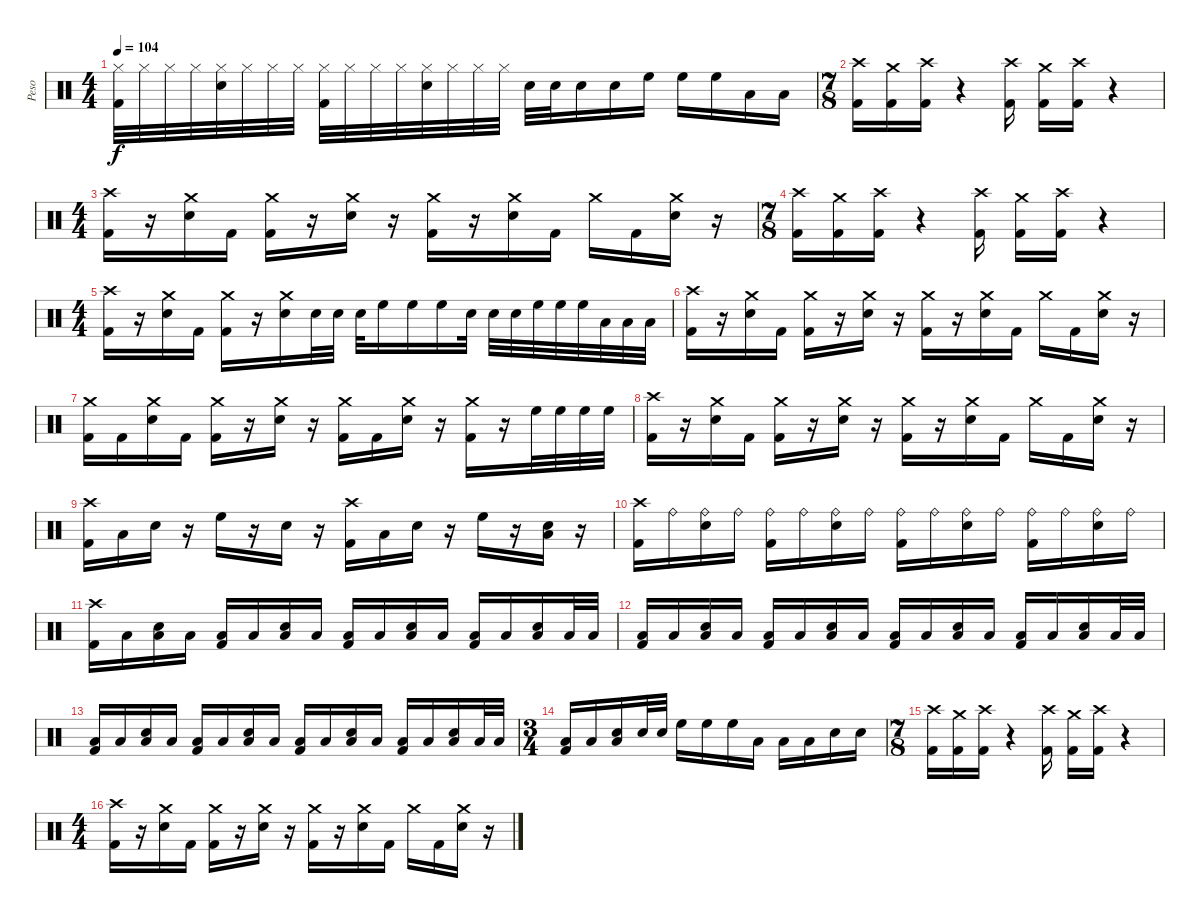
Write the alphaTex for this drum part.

\track ("Peso" "Peso") {instrument percussion}
\staff {score}
\articulation defaults
\ts (4 4)
\tempo 104
\clef neutral
\ks c
("Hi-Hat (closed)" "Kick (hit) 2").32{dy f} "Hi-Hat (closed)".32 "Hi-Hat (closed)".32 "Hi-Hat (closed)".32 ("Hi-Hat (closed)" "Snare (hit) 2").32 "Hi-Hat (closed)".32 "Hi-Hat (closed)".32 "Hi-Hat (closed)".32 ("Hi-Hat (closed)" "Kick (hit) 2").32 "Hi-Hat (closed)".32 "Hi-Hat (closed)".32 "Hi-Hat (closed)".32 ("Hi-Hat (closed)" "Snare (hit) 2").32 "Hi-Hat (closed)".32 "Hi-Hat (closed)".32 "Hi-Hat (closed)".32 "Snare (hit) 2".32 "Snare (hit) 2".32 "Snare (hit) 2".16 "Snare (hit) 2".16 "High Floor Tom (hit)".16 "High Floor Tom (hit)".16 "High Floor Tom (hit)".16 "Low Floor Tom (hit)".16 "Low Floor Tom (hit)".16 |
\ts (7 8)
("Crash high (hit)" "Kick (hit) 2").16 ("Crash medium (hit)" "Kick (hit) 2").16 ("Crash high (hit)" "Kick (hit) 2").16 r.4 ("Crash high (hit)" "Kick (hit) 2").16 ("Crash medium (hit)" "Kick (hit) 2").16 ("Crash high (hit)" "Kick (hit) 2").16 r.4 |
\ts (4 4)
("Crash high (hit)" "Kick (hit) 2").16 r.16 ("Crash medium (hit)" "Snare (hit) 2").16 "Kick (hit) 2".16 ("Crash medium (hit)" "Kick (hit) 2").16 r.16 ("Crash medium (hit)" "Snare (hit) 2").16 r.16 ("Crash medium (hit)" "Kick (hit) 2").16 r.16 ("Crash medium (hit)" "Snare (hit) 2").16 "Kick (hit) 2".16 "Crash medium (hit)".16 "Kick (hit) 2".16 ("Crash medium (hit)" "Snare (hit) 2").16 r.16 |
\ts (7 8)
("Crash high (hit)" "Kick (hit) 2").16 ("Crash medium (hit)" "Kick (hit) 2").16 ("Crash high (hit)" "Kick (hit) 2").16 r.4 ("Crash high (hit)" "Kick (hit) 2").16 ("Crash medium (hit)" "Kick (hit) 2").16 ("Crash high (hit)" "Kick (hit) 2").16 r.4 |
\ts (4 4)
("Crash high (hit)" "Kick (hit) 2").16 r.16 ("Crash medium (hit)" "Snare (hit) 2").16 "Kick (hit) 2".16 ("Crash medium (hit)" "Kick (hit) 2").16 r.16 ("Crash medium (hit)" "Snare (hit) 2").16 "Snare (hit) 2".32 "Snare (hit) 2".32 "Snare (hit) 2".32 "High Floor Tom (hit)".16 "High Floor Tom (hit)".16 "High Floor Tom (hit)".16 "Snare (hit) 2".32 "Snare (hit) 2".32 "Snare (hit) 2".32 "High Floor Tom (hit)".32 "High Floor Tom (hit)".32 "High Floor Tom (hit)".32 "Low Floor Tom (hit)".32 "Low Floor Tom (hit)".32 "Low Floor Tom (hit)".32 |
("Crash high (hit)" "Kick (hit) 2").16 r.16 ("Crash medium (hit)" "Snare (hit) 2").16 "Kick (hit) 2".16 ("Crash medium (hit)" "Kick (hit) 2").16 r.16 ("Crash medium (hit)" "Snare (hit) 2").16 r.16 ("Crash medium (hit)" "Kick (hit) 2").16 r.16 ("Crash medium (hit)" "Snare (hit) 2").16 "Kick (hit) 2".16 "Crash medium (hit)".16 "Kick (hit) 2".16 ("Crash medium (hit)" "Snare (hit) 2").16 r.16 |
("Crash medium (hit)" "Kick (hit) 2").16 "Kick (hit) 2".16 ("Crash medium (hit)" "Snare (hit) 2").16 "Kick (hit) 2".16 ("Crash medium (hit)" "Kick (hit) 2").16 r.16 ("Crash medium (hit)" "Snare (hit) 2").16 r.16 ("Crash medium (hit)" "Kick (hit) 2").16 "Kick (hit) 2".16 ("Crash medium (hit)" "Snare (hit) 2").16 r.16 ("Crash medium (hit)" "Kick (hit) 2").16 r.16 "High Floor Tom (hit)".32 "High Floor Tom (hit)".32 "High Floor Tom (hit)".32 "High Floor Tom (hit)".32 |
("Crash high (hit)" "Kick (hit) 2").16 r.16 ("Crash medium (hit)" "Snare (hit) 2").16 "Kick (hit) 2".16 ("Crash medium (hit)" "Kick (hit) 2").16 r.16 ("Crash medium (hit)" "Snare (hit) 2").16 r.16 ("Crash medium (hit)" "Kick (hit) 2").16 r.16 ("Crash medium (hit)" "Snare (hit) 2").16 "Kick (hit) 2".16 "Crash medium (hit)".16 "Kick (hit) 2".16 ("Crash medium (hit)" "Snare (hit) 2").16 r.16 |
("Crash high (hit)" "Kick (hit) 2").16 "Low Floor Tom (hit)".16 "Snare (hit) 2".16 r.16 "High Floor Tom (hit)".16 r.16 "Snare (hit) 2".16 r.16 ("Crash high (hit)" "Kick (hit) 2").16 "Low Floor Tom (hit)".16 "Snare (hit) 2".16 r.16 "High Floor Tom (hit)".16 r.16 ("Low Floor Tom (hit)" "Snare (hit) 2").16 r.16 |
("Crash high (hit)" "Kick (hit) 2").16 "Ride (bell)".16 ("Ride (bell)" "Snare (hit) 2").16 "Ride (bell)".16 ("Ride (bell)" "Kick (hit) 2").16 "Ride (bell)".16 ("Ride (bell)" "Snare (hit) 2").16 "Ride (bell)".16 ("Ride (bell)" "Kick (hit) 2").16 "Ride (bell)".16 ("Ride (bell)" "Snare (hit) 2").16 "Ride (bell)".16 ("Ride (bell)" "Kick (hit) 2").16 "Ride (bell)".16 ("Ride (bell)" "Snare (hit) 2").16 "Ride (bell)".16 |
("Crash high (hit)" "Kick (hit) 2").16 "Low Floor Tom (hit)".16 ("Low Floor Tom (hit)" "Snare (hit) 2").16 "Low Floor Tom (hit)".16 ("Low Floor Tom (hit)" "Kick (hit) 2").16 "Low Floor Tom (hit)".16 ("Low Floor Tom (hit)" "Snare (hit) 2").16 "Low Floor Tom (hit)".16 ("Low Floor Tom (hit)" "Kick (hit) 2").16 "Low Floor Tom (hit)".16 ("Low Floor Tom (hit)" "Snare (hit) 2").16 "Low Floor Tom (hit)".16 ("Low Floor Tom (hit)" "Kick (hit) 2").16 "Low Floor Tom (hit)".16 ("Low Floor Tom (hit)" "Snare (hit) 2").16 "Low Floor Tom (hit)".32 "Low Floor Tom (hit)".32 |
("Low Floor Tom (hit)" "Kick (hit) 2").16 "Low Floor Tom (hit)".16 ("Low Floor Tom (hit)" "Snare (hit) 2").16 "Low Floor Tom (hit)".16 ("Low Floor Tom (hit)" "Kick (hit) 2").16 "Low Floor Tom (hit)".16 ("Low Floor Tom (hit)" "Snare (hit) 2").16 "Low Floor Tom (hit)".16 ("Low Floor Tom (hit)" "Kick (hit) 2").16 "Low Floor Tom (hit)".16 ("Low Floor Tom (hit)" "Snare (hit) 2").16 "Low Floor Tom (hit)".16 ("Low Floor Tom (hit)" "Kick (hit) 2").16 "Low Floor Tom (hit)".16 ("Low Floor Tom (hit)" "Snare (hit) 2").16 "Low Floor Tom (hit)".32 "Low Floor Tom (hit)".32 |
("Low Floor Tom (hit)" "Kick (hit) 2").16 "Low Floor Tom (hit)".16 ("Low Floor Tom (hit)" "Snare (hit) 2").16 "Low Floor Tom (hit)".16 ("Low Floor Tom (hit)" "Kick (hit) 2").16 "Low Floor Tom (hit)".16 ("Low Floor Tom (hit)" "Snare (hit) 2").16 "Low Floor Tom (hit)".16 ("Low Floor Tom (hit)" "Kick (hit) 2").16 "Low Floor Tom (hit)".16 ("Low Floor Tom (hit)" "Snare (hit) 2").16 "Low Floor Tom (hit)".16 ("Low Floor Tom (hit)" "Kick (hit) 2").16 "Low Floor Tom (hit)".16 ("Low Floor Tom (hit)" "Snare (hit) 2").16 "Low Floor Tom (hit)".32 "Low Floor Tom (hit)".32 |
\ts (3 4)
("Low Floor Tom (hit)" "Kick (hit) 2").16 "Low Floor Tom (hit)".16 ("Low Floor Tom (hit)" "Snare (hit) 2").16 "Snare (hit) 2".32 "Snare (hit) 2".32 "High Floor Tom (hit)".16 "High Floor Tom (hit)".16 "High Floor Tom (hit)".16 "Low Floor Tom (hit)".16 "Low Floor Tom (hit)".16 "Low Floor Tom (hit)".16 "Snare (hit) 2".16 "Snare (hit) 2".16 |
\ts (7 8)
("Crash high (hit)" "Kick (hit) 2").16 ("Crash medium (hit)" "Kick (hit) 2").16 ("Crash high (hit)" "Kick (hit) 2").16 r.4 ("Crash high (hit)" "Kick (hit) 2").16 ("Crash medium (hit)" "Kick (hit) 2").16 ("Crash high (hit)" "Kick (hit) 2").16 r.4 |
\ts (4 4)
("Crash high (hit)" "Kick (hit) 2").16 r.16 ("Crash medium (hit)" "Snare (hit) 2").16 "Kick (hit) 2".16 ("Crash medium (hit)" "Kick (hit) 2").16 r.16 ("Crash medium (hit)" "Snare (hit) 2").16 r.16 ("Crash medium (hit)" "Kick (hit) 2").16 r.16 ("Crash medium (hit)" "Snare (hit) 2").16 "Kick (hit) 2".16 "Crash medium (hit)".16 "Kick (hit) 2".16 ("Crash medium (hit)" "Snare (hit) 2").16 r.16
